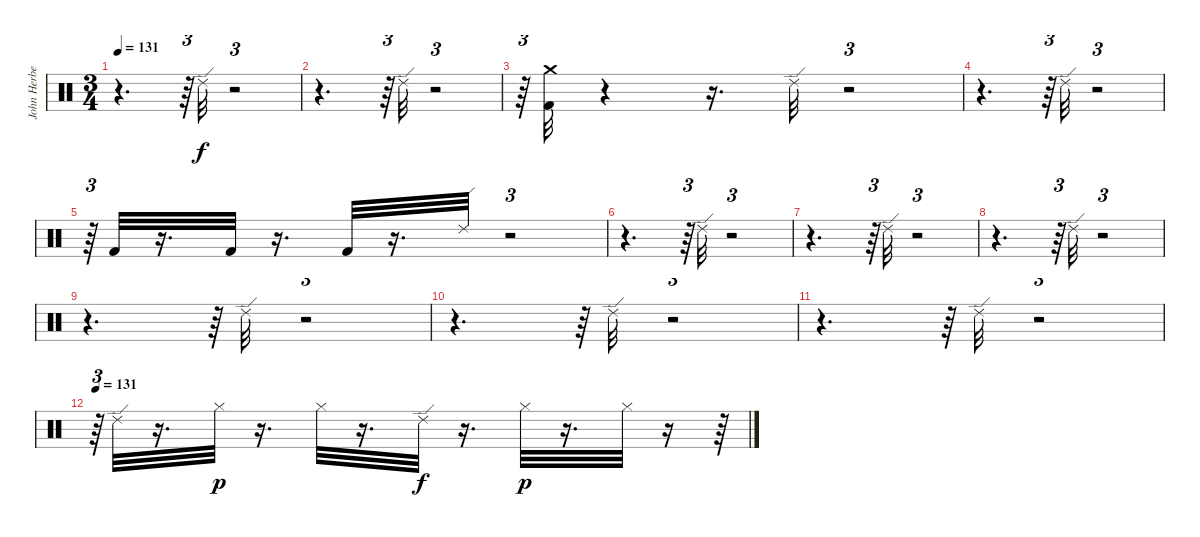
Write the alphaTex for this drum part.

\track ("John Herbert" "John Herbe") {instrument percussion}
\staff {score}
\articulation defaults
\ts (3 4)
\tempo 131
\clef neutral
\ks c
r.4{d dy f} r.64{tu (3 2)} "Ride (edge) 2".32 r.2{tu (3 2)} |
r.4{d} r.64{tu (3 2)} "Ride (edge) 2".32 r.2{tu (3 2)} |
r.64{tu (3 2)} ("Kick (hit) 2" "Crash medium (hit)").32 r.4 r.16{d} "Ride (edge) 2".32 r.2{tu (3 2)} |
r.4{d} r.64{tu (3 2)} "Ride (edge) 2".32 r.2{tu (3 2)} |
r.64{tu (3 2)} "Kick (hit) 2".32 r.16{d} "Kick (hit) 2".32 r.16{d} "Kick (hit) 2".32 r.16{d} "Ride (edge) 2".32 r.2{tu (3 2)} |
r.4{d} r.64{tu (3 2)} "Ride (edge) 2".32 r.2{tu (3 2)} |
r.4{d} r.64{tu (3 2)} "Ride (edge) 2".32 r.2{tu (3 2)} |
r.4{d} r.64{tu (3 2)} "Ride (edge) 2".32 r.2{tu (3 2)} |
r.4{d} r.64{tu (3 2)} "Ride (edge) 2".32 r.2{tu (3 2)} |
r.4{d} r.64{tu (3 2)} "Ride (edge) 2".32 r.2{tu (3 2)} |
r.4{d} r.64{tu (3 2)} "Ride (edge) 2".32 r.2{tu (3 2)} |
\tempo 131
r.64{tu (3 2)} "Ride (edge) 2".32 r.16{d} "Hi-Hat (closed)".32{dy p} r.16{d} "Hi-Hat (closed)".32 r.16{d} "Ride (edge) 2".32{dy f} r.16{d} "Hi-Hat (closed)".32{dy p} r.16{d} "Hi-Hat (closed)".32 r.16 r.64
